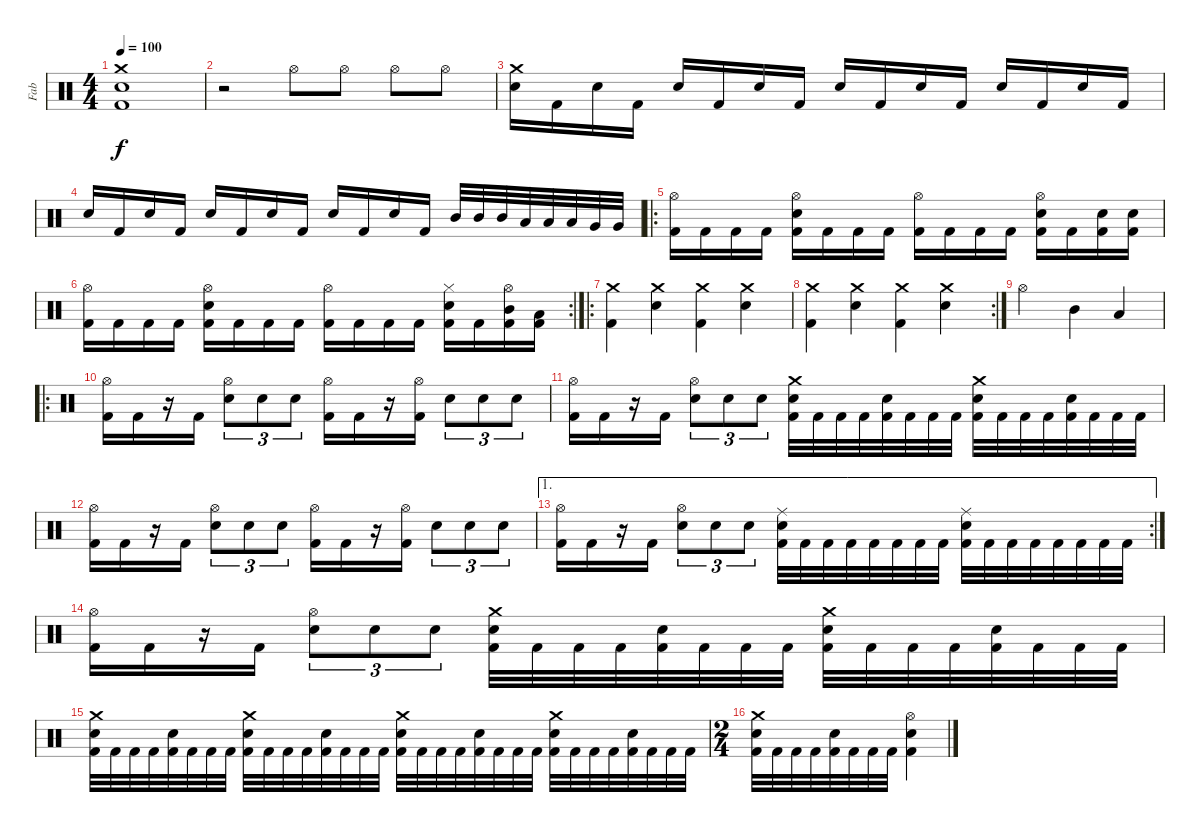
\track ("Fab" "Fab") {instrument percussion}
\staff {score}
\articulation defaults
\ts (4 4)
\tempo 100
\clef neutral
\ks c
("Crash medium (hit)" "Snare (hit) 2" "Kick (hit) 2").1{dy f} |
r.2 "Hi-Hat (open)".8 "Hi-Hat (open)".8 "Hi-Hat (open)".8 "Hi-Hat (open)".8 |
("Crash medium (hit)" "Snare (hit) 2").16 "Kick (hit) 2".16 "Snare (hit) 2".16 "Kick (hit) 2".16 "Snare (hit) 2".16 "Kick (hit) 2".16 "Snare (hit) 2".16 "Kick (hit) 2".16 "Snare (hit) 2".16 "Kick (hit) 2".16 "Snare (hit) 2".16 "Kick (hit) 2".16 "Snare (hit) 2".16 "Kick (hit) 2".16 "Snare (hit) 2".16 "Kick (hit) 2".16 |
"Snare (hit) 2".16 "Kick (hit) 2".16 "Snare (hit) 2".16 "Kick (hit) 2".16 "Snare (hit) 2".16 "Kick (hit) 2".16 "Snare (hit) 2".16 "Kick (hit) 2".16 "Snare (hit) 2".16 "Kick (hit) 2".16 "Snare (hit) 2".16 "Kick (hit) 2".16 "Mid Tom (hit)".32 "Mid Tom (hit)".32 "Mid Tom (hit)".32 "Low Tom (hit)".32 "Low Tom (hit)".32 "Low Tom (hit)".32 "Very Low Tom (hit)".32 "Very Low Tom (hit)".32 |
\ro
("Hi-Hat (open)" "Kick (hit) 2").16 "Kick (hit) 2".16 "Kick (hit) 2".16 "Kick (hit) 2".16 ("Hi-Hat (open)" "Snare (hit) 2" "Kick (hit) 2").16 "Kick (hit) 2".16 "Kick (hit) 2".16 "Kick (hit) 2".16 ("Hi-Hat (open)" "Kick (hit) 2").16 "Kick (hit) 2".16 "Kick (hit) 2".16 "Kick (hit) 2".16 ("Hi-Hat (open)" "Snare (hit) 2" "Kick (hit) 2").16 "Kick (hit) 2".16 ("Snare (hit) 2" "Kick (hit) 2").16 ("Snare (hit) 2" "Kick (hit) 2").16 |
\rc 2
("Hi-Hat (open)" "Kick (hit) 2").16 "Kick (hit) 2".16 "Kick (hit) 2".16 "Kick (hit) 2".16 ("Hi-Hat (open)" "Snare (hit) 2" "Kick (hit) 2").16 "Kick (hit) 2".16 "Kick (hit) 2".16 "Kick (hit) 2".16 ("Hi-Hat (open)" "Kick (hit) 2").16 "Kick (hit) 2".16 "Kick (hit) 2".16 "Kick (hit) 2".16 ("Hi-Hat (closed)" "Snare (hit) 2" "Kick (hit) 2").16 "Kick (hit) 2".16 ("Hi-Hat (open)" "Mid Tom (hit)" "Kick (hit) 2").16 ("Low Tom (hit)" "Kick (hit) 2").16 |
\ro
("Crash medium (hit)" "Kick (hit) 2").4 ("Crash medium (hit)" "Snare (hit) 2").4 ("Crash medium (hit)" "Kick (hit) 2").4 ("Crash medium (hit)" "Snare (hit) 2").4 |
\rc 2
("Crash medium (hit)" "Kick (hit) 2").4 ("Crash medium (hit)" "Snare (hit) 2").4 ("Crash medium (hit)" "Kick (hit) 2").4 ("Crash medium (hit)" "Snare (hit) 2").4 |
"Hi-Hat (open)".2 "Mid Tom (hit)".4 "Low Tom (hit)".4 |
\ro
("Hi-Hat (open)" "Kick (hit) 2").16 "Kick (hit) 2".16 r.16 "Kick (hit) 2".16 ("Hi-Hat (open)" "Snare (hit) 2").8{tu (3 2)} "Snare (hit) 2".8{tu (3 2)} "Snare (hit) 2".8{tu (3 2)} ("Hi-Hat (open)" "Kick (hit) 2").16 "Kick (hit) 2".16 r.16 ("Hi-Hat (open)" "Kick (hit) 2").16 "Snare (hit) 2".8{tu (3 2)} "Snare (hit) 2".8{tu (3 2)} "Snare (hit) 2".8{tu (3 2)} |
("Hi-Hat (open)" "Kick (hit) 2").16 "Kick (hit) 2".16 r.16 "Kick (hit) 2".16 ("Hi-Hat (open)" "Snare (hit) 2").8{tu (3 2)} "Snare (hit) 2".8{tu (3 2)} "Snare (hit) 2".8{tu (3 2)} ("Crash medium (hit)" "Snare (hit) 2" "Kick (hit) 2").32 "Kick (hit) 2".32 "Kick (hit) 2".32 "Kick (hit) 2".32 ("Snare (hit) 2" "Kick (hit) 2").32 "Kick (hit) 2".32 "Kick (hit) 2".32 "Kick (hit) 2".32 ("Crash medium (hit)" "Snare (hit) 2" "Kick (hit) 2").32 "Kick (hit) 2".32 "Kick (hit) 2".32 "Kick (hit) 2".32 ("Snare (hit) 2" "Kick (hit) 2").32 "Kick (hit) 2".32 "Kick (hit) 2".32 "Kick (hit) 2".32 |
("Hi-Hat (open)" "Kick (hit) 2").16 "Kick (hit) 2".16 r.16 "Kick (hit) 2".16 ("Hi-Hat (open)" "Snare (hit) 2").8{tu (3 2)} "Snare (hit) 2".8{tu (3 2)} "Snare (hit) 2".8{tu (3 2)} ("Hi-Hat (open)" "Kick (hit) 2").16 "Kick (hit) 2".16 r.16 ("Hi-Hat (open)" "Kick (hit) 2").16 "Snare (hit) 2".8{tu (3 2)} "Snare (hit) 2".8{tu (3 2)} "Snare (hit) 2".8{tu (3 2)} |
\ae 1
\rc 2
("Hi-Hat (open)" "Kick (hit) 2").16 "Kick (hit) 2".16 r.16 "Kick (hit) 2".16 ("Hi-Hat (open)" "Snare (hit) 2").8{tu (3 2)} "Snare (hit) 2".8{tu (3 2)} "Snare (hit) 2".8{tu (3 2)} ("Ride (middle)" "Snare (hit) 2" "Kick (hit) 2").32 "Kick (hit) 2".32 "Kick (hit) 2".32 "Kick (hit) 2".32 "Kick (hit) 2".32 "Kick (hit) 2".32 "Kick (hit) 2".32 "Kick (hit) 2".32 ("Ride (middle)" "Snare (hit) 2" "Kick (hit) 2").32 "Kick (hit) 2".32 "Kick (hit) 2".32 "Kick (hit) 2".32 "Kick (hit) 2".32 "Kick (hit) 2".32 "Kick (hit) 2".32 "Kick (hit) 2".32 |
("Hi-Hat (open)" "Kick (hit) 2").16 "Kick (hit) 2".16 r.16 "Kick (hit) 2".16 ("Hi-Hat (open)" "Snare (hit) 2").8{tu (3 2)} "Snare (hit) 2".8{tu (3 2)} "Snare (hit) 2".8{tu (3 2)} ("Crash medium (hit)" "Snare (hit) 2" "Kick (hit) 2").32 "Kick (hit) 2".32 "Kick (hit) 2".32 "Kick (hit) 2".32 ("Snare (hit) 2" "Kick (hit) 2").32 "Kick (hit) 2".32 "Kick (hit) 2".32 "Kick (hit) 2".32 ("Crash medium (hit)" "Snare (hit) 2" "Kick (hit) 2").32 "Kick (hit) 2".32 "Kick (hit) 2".32 "Kick (hit) 2".32 ("Snare (hit) 2" "Kick (hit) 2").32 "Kick (hit) 2".32 "Kick (hit) 2".32 "Kick (hit) 2".32 |
("Crash medium (hit)" "Snare (hit) 2" "Kick (hit) 2").32 "Kick (hit) 2".32 "Kick (hit) 2".32 "Kick (hit) 2".32 ("Snare (hit) 2" "Kick (hit) 2").32 "Kick (hit) 2".32 "Kick (hit) 2".32 "Kick (hit) 2".32 ("Crash medium (hit)" "Snare (hit) 2" "Kick (hit) 2").32 "Kick (hit) 2".32 "Kick (hit) 2".32 "Kick (hit) 2".32 ("Snare (hit) 2" "Kick (hit) 2").32 "Kick (hit) 2".32 "Kick (hit) 2".32 "Kick (hit) 2".32 ("Crash medium (hit)" "Snare (hit) 2" "Kick (hit) 2").32 "Kick (hit) 2".32 "Kick (hit) 2".32 "Kick (hit) 2".32 ("Snare (hit) 2" "Kick (hit) 2").32 "Kick (hit) 2".32 "Kick (hit) 2".32 "Kick (hit) 2".32 ("Crash medium (hit)" "Snare (hit) 2" "Kick (hit) 2").32 "Kick (hit) 2".32 "Kick (hit) 2".32 "Kick (hit) 2".32 ("Snare (hit) 2" "Kick (hit) 2").32 "Kick (hit) 2".32 "Kick (hit) 2".32 "Kick (hit) 2".32 |
\ts (2 4)
("Crash medium (hit)" "Snare (hit) 2" "Kick (hit) 2").32 "Kick (hit) 2".32 "Kick (hit) 2".32 "Kick (hit) 2".32 ("Snare (hit) 2" "Kick (hit) 2").32 "Kick (hit) 2".32 "Kick (hit) 2".32 "Kick (hit) 2".32 ("Hi-Hat (open)" "Snare (hit) 2" "Kick (hit) 2").4
